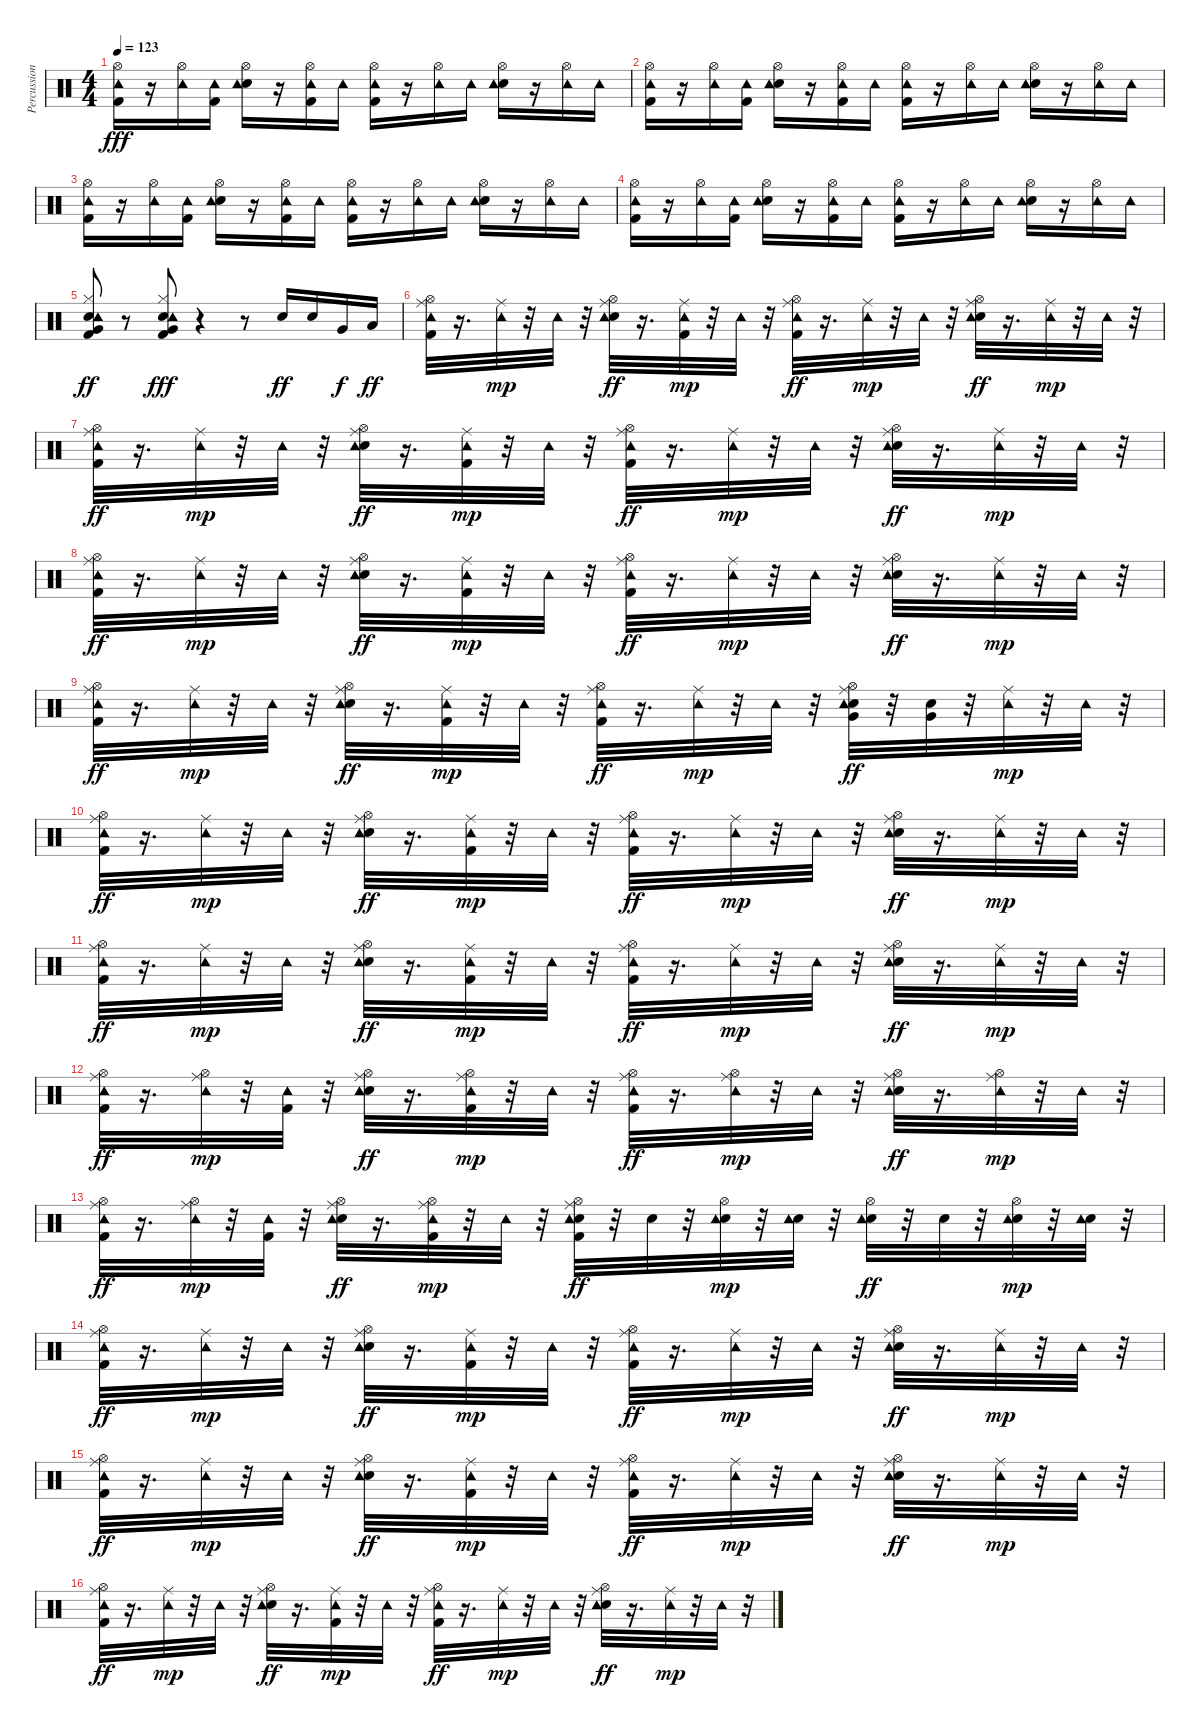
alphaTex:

\track ("Percussion: Liberty D'Vitto" "Percussion") {instrument percussion}
\staff {score}
\articulation defaults
\ts (4 4)
\tempo 123
\clef neutral
\ks c
("Hi-Hat (open)" "Tambourine (hit)" "Kick (hit) 2").16{dy fff} r.16 ("Hi-Hat (open)" "Tambourine (hit)").16 ("Tambourine (hit)" "Kick (hit) 2").16 ("Hi-Hat (open)" "Snare (hit) 2" "Tambourine (hit)").16 r.16 ("Hi-Hat (open)" "Tambourine (hit)" "Kick (hit) 2").16 "Tambourine (hit)".16 ("Hi-Hat (open)" "Tambourine (hit)" "Kick (hit) 2").16 r.16 ("Hi-Hat (open)" "Tambourine (hit)").16 "Tambourine (hit)".16 ("Hi-Hat (open)" "Snare (hit) 2" "Tambourine (hit)").16 r.16 ("Hi-Hat (open)" "Tambourine (hit)").16 "Tambourine (hit)".16 |
("Hi-Hat (open)" "Tambourine (hit)" "Kick (hit) 2").16 r.16 ("Hi-Hat (open)" "Tambourine (hit)").16 ("Tambourine (hit)" "Kick (hit) 2").16 ("Hi-Hat (open)" "Snare (hit) 2" "Tambourine (hit)").16 r.16 ("Hi-Hat (open)" "Tambourine (hit)" "Kick (hit) 2").16 "Tambourine (hit)".16 ("Hi-Hat (open)" "Tambourine (hit)" "Kick (hit) 2").16 r.16 ("Hi-Hat (open)" "Tambourine (hit)").16 "Tambourine (hit)".16 ("Hi-Hat (open)" "Snare (hit) 2" "Tambourine (hit)").16 r.16 ("Hi-Hat (open)" "Tambourine (hit)").16 "Tambourine (hit)".16 |
("Hi-Hat (open)" "Tambourine (hit)" "Kick (hit) 2").16 r.16 ("Hi-Hat (open)" "Tambourine (hit)").16 ("Tambourine (hit)" "Kick (hit) 2").16 ("Hi-Hat (open)" "Snare (hit) 2" "Tambourine (hit)").16 r.16 ("Hi-Hat (open)" "Tambourine (hit)" "Kick (hit) 2").16 "Tambourine (hit)".16 ("Hi-Hat (open)" "Tambourine (hit)" "Kick (hit) 2").16 r.16 ("Hi-Hat (open)" "Tambourine (hit)").16 "Tambourine (hit)".16 ("Hi-Hat (open)" "Snare (hit) 2" "Tambourine (hit)").16 r.16 ("Hi-Hat (open)" "Tambourine (hit)").16 "Tambourine (hit)".16 |
("Hi-Hat (open)" "Tambourine (hit)" "Kick (hit) 2").16 r.16 ("Hi-Hat (open)" "Tambourine (hit)").16 ("Tambourine (hit)" "Kick (hit) 2").16 ("Hi-Hat (open)" "Snare (hit) 2" "Tambourine (hit)").16 r.16 ("Hi-Hat (open)" "Tambourine (hit)" "Kick (hit) 2").16 "Tambourine (hit)".16 ("Hi-Hat (open)" "Tambourine (hit)" "Kick (hit) 2").16 r.16 ("Hi-Hat (open)" "Tambourine (hit)").16 "Tambourine (hit)".16 ("Hi-Hat (open)" "Snare (hit) 2" "Tambourine (hit)").16 r.16 ("Hi-Hat (open)" "Tambourine (hit)").16 "Tambourine (hit)".16 |
("Kick (hit) 2" "Snare (hit) 2" "Hi-Hat (closed)" "Very Low Tom (hit)" "Tambourine (hit)").8{dy ff} r.8 ("Kick (hit) 2" "Snare (hit) 2" "Hi-Hat (closed)" "Very Low Tom (hit)" "Tambourine (hit)").8{dy fff} r.4 r.8 "Snare (hit) 2".16{dy ff} "Snare (hit) 2".16 "Very Low Tom (hit)".16{dy f} "Low Floor Tom (hit)".16{dy ff} |
("Kick (hit) 2" "Hi-Hat (open)" "Ride (middle)" "Tambourine (hit)").32 r.16{d} ("Ride (middle)" "Tambourine (hit)").32{dy mp} r.32 "Tambourine (hit)".32 r.32 ("Snare (hit) 2" "Hi-Hat (open)" "Ride (middle)" "Tambourine (hit)").32{dy ff} r.16{d} ("Kick (hit) 2" "Ride (middle)" "Tambourine (hit)").32{dy mp} r.32 "Tambourine (hit)".32 r.32 ("Kick (hit) 2" "Hi-Hat (open)" "Ride (middle)" "Tambourine (hit)").32{dy ff} r.16{d} ("Ride (middle)" "Tambourine (hit)").32{dy mp} r.32 "Tambourine (hit)".32 r.32 ("Snare (hit) 2" "Hi-Hat (open)" "Ride (middle)" "Tambourine (hit)").32{dy ff} r.16{d} ("Ride (middle)" "Tambourine (hit)").32{dy mp} r.32 "Tambourine (hit)".32 r.32 |
("Kick (hit) 2" "Hi-Hat (open)" "Ride (middle)" "Tambourine (hit)").32{dy ff} r.16{d} ("Ride (middle)" "Tambourine (hit)").32{dy mp} r.32 "Tambourine (hit)".32 r.32 ("Snare (hit) 2" "Hi-Hat (open)" "Ride (middle)" "Tambourine (hit)").32{dy ff} r.16{d} ("Kick (hit) 2" "Ride (middle)" "Tambourine (hit)").32{dy mp} r.32 "Tambourine (hit)".32 r.32 ("Kick (hit) 2" "Hi-Hat (open)" "Ride (middle)" "Tambourine (hit)").32{dy ff} r.16{d} ("Ride (middle)" "Tambourine (hit)").32{dy mp} r.32 "Tambourine (hit)".32 r.32 ("Snare (hit) 2" "Hi-Hat (open)" "Ride (middle)" "Tambourine (hit)").32{dy ff} r.16{d} ("Ride (middle)" "Tambourine (hit)").32{dy mp} r.32 "Tambourine (hit)".32 r.32 |
("Kick (hit) 2" "Hi-Hat (open)" "Ride (middle)" "Tambourine (hit)").32{dy ff} r.16{d} ("Ride (middle)" "Tambourine (hit)").32{dy mp} r.32 "Tambourine (hit)".32 r.32 ("Snare (hit) 2" "Hi-Hat (open)" "Ride (middle)" "Tambourine (hit)").32{dy ff} r.16{d} ("Kick (hit) 2" "Ride (middle)" "Tambourine (hit)").32{dy mp} r.32 "Tambourine (hit)".32 r.32 ("Kick (hit) 2" "Hi-Hat (open)" "Ride (middle)" "Tambourine (hit)").32{dy ff} r.16{d} ("Ride (middle)" "Tambourine (hit)").32{dy mp} r.32 "Tambourine (hit)".32 r.32 ("Snare (hit) 2" "Hi-Hat (open)" "Ride (middle)" "Tambourine (hit)").32{dy ff} r.16{d} ("Ride (middle)" "Tambourine (hit)").32{dy mp} r.32 "Tambourine (hit)".32 r.32 |
("Kick (hit) 2" "Hi-Hat (open)" "Ride (middle)" "Tambourine (hit)").32{dy ff} r.16{d} ("Ride (middle)" "Tambourine (hit)").32{dy mp} r.32 "Tambourine (hit)".32 r.32 ("Snare (hit) 2" "Hi-Hat (open)" "Ride (middle)" "Tambourine (hit)").32{dy ff} r.16{d} ("Kick (hit) 2" "Ride (middle)" "Tambourine (hit)").32{dy mp} r.32 "Tambourine (hit)".32 r.32 ("Kick (hit) 2" "Hi-Hat (open)" "Ride (middle)" "Tambourine (hit)").32{dy ff} r.16{d} ("Ride (middle)" "Tambourine (hit)").32{dy mp} r.32 "Tambourine (hit)".32 r.32 ("Snare (hit) 2" "Hi-Hat (open)" "Ride (middle)" "Very Low Tom (hit)" "Tambourine (hit)").32{dy ff} r.32 ("Snare (hit) 2" "Very Low Tom (hit)").32 r.32 ("Ride (middle)" "Tambourine (hit)").32{dy mp} r.32 "Tambourine (hit)".32 r.32 |
("Kick (hit) 2" "Hi-Hat (open)" "Ride (middle)" "Tambourine (hit)").32{dy ff} r.16{d} ("Ride (middle)" "Tambourine (hit)").32{dy mp} r.32 "Tambourine (hit)".32 r.32 ("Snare (hit) 2" "Hi-Hat (open)" "Ride (middle)" "Tambourine (hit)").32{dy ff} r.16{d} ("Kick (hit) 2" "Ride (middle)" "Tambourine (hit)").32{dy mp} r.32 "Tambourine (hit)".32 r.32 ("Kick (hit) 2" "Hi-Hat (open)" "Ride (middle)" "Tambourine (hit)").32{dy ff} r.16{d} ("Ride (middle)" "Tambourine (hit)").32{dy mp} r.32 "Tambourine (hit)".32 r.32 ("Snare (hit) 2" "Hi-Hat (open)" "Ride (middle)" "Tambourine (hit)").32{dy ff} r.16{d} ("Ride (middle)" "Tambourine (hit)").32{dy mp} r.32 "Tambourine (hit)".32 r.32 |
("Kick (hit) 2" "Hi-Hat (open)" "Ride (middle)" "Tambourine (hit)").32{dy ff} r.16{d} ("Ride (middle)" "Tambourine (hit)").32{dy mp} r.32 "Tambourine (hit)".32 r.32 ("Snare (hit) 2" "Hi-Hat (open)" "Ride (middle)" "Tambourine (hit)").32{dy ff} r.16{d} ("Kick (hit) 2" "Ride (middle)" "Tambourine (hit)").32{dy mp} r.32 "Tambourine (hit)".32 r.32 ("Kick (hit) 2" "Hi-Hat (open)" "Ride (middle)" "Tambourine (hit)").32{dy ff} r.16{d} ("Ride (middle)" "Tambourine (hit)").32{dy mp} r.32 "Tambourine (hit)".32 r.32 ("Snare (hit) 2" "Hi-Hat (open)" "Ride (middle)" "Tambourine (hit)").32{dy ff} r.16{d} ("Ride (middle)" "Tambourine (hit)").32{dy mp} r.32 "Tambourine (hit)".32 r.32 |
("Kick (hit) 2" "Hi-Hat (open)" "Ride (middle)" "Tambourine (hit)").32{dy ff} r.16{d} ("Hi-Hat (open)" "Ride (middle)" "Tambourine (hit)").32{dy mp} r.32 ("Kick (hit) 2" "Tambourine (hit)").32 r.32 ("Snare (hit) 2" "Hi-Hat (open)" "Ride (middle)" "Tambourine (hit)").32{dy ff} r.16{d} ("Kick (hit) 2" "Hi-Hat (open)" "Ride (middle)" "Tambourine (hit)").32{dy mp} r.32 "Tambourine (hit)".32 r.32 ("Kick (hit) 2" "Hi-Hat (open)" "Ride (middle)" "Tambourine (hit)").32{dy ff} r.16{d} ("Hi-Hat (open)" "Ride (middle)" "Tambourine (hit)").32{dy mp} r.32 "Tambourine (hit)".32 r.32 ("Snare (hit) 2" "Hi-Hat (open)" "Ride (middle)" "Tambourine (hit)").32{dy ff} r.16{d} ("Hi-Hat (open)" "Ride (middle)" "Tambourine (hit)").32{dy mp} r.32 "Tambourine (hit)".32 r.32 |
("Kick (hit) 2" "Hi-Hat (open)" "Ride (middle)" "Tambourine (hit)").32{dy ff} r.16{d} ("Hi-Hat (open)" "Ride (middle)" "Tambourine (hit)").32{dy mp} r.32 ("Kick (hit) 2" "Tambourine (hit)").32 r.32 ("Snare (hit) 2" "Hi-Hat (open)" "Ride (middle)" "Tambourine (hit)").32{dy ff} r.16{d} ("Kick (hit) 2" "Hi-Hat (open)" "Ride (middle)" "Tambourine (hit)").32{dy mp} r.32 "Tambourine (hit)".32 r.32 ("Kick (hit) 2" "Snare (hit) 2" "Hi-Hat (open)" "Ride (middle)" "Tambourine (hit)").32{dy ff} r.32 "Snare (hit) 2".32 r.32 ("Snare (hit) 2" "Hi-Hat (open)" "Tambourine (hit)").32{dy mp} r.32 ("Snare (hit) 2" "Tambourine (hit)").32 r.32 ("Snare (hit) 2" "Hi-Hat (open)" "Tambourine (hit)").32{dy ff} r.32 "Snare (hit) 2".32 r.32 ("Snare (hit) 2" "Hi-Hat (open)" "Tambourine (hit)").32{dy mp} r.32 ("Snare (hit) 2" "Tambourine (hit)").32 r.32 |
("Kick (hit) 2" "Hi-Hat (open)" "Ride (middle)" "Tambourine (hit)").32{dy ff} r.16{d} ("Ride (middle)" "Tambourine (hit)").32{dy mp} r.32 "Tambourine (hit)".32 r.32 ("Snare (hit) 2" "Hi-Hat (open)" "Ride (middle)" "Tambourine (hit)").32{dy ff} r.16{d} ("Kick (hit) 2" "Ride (middle)" "Tambourine (hit)").32{dy mp} r.32 "Tambourine (hit)".32 r.32 ("Kick (hit) 2" "Hi-Hat (open)" "Ride (middle)" "Tambourine (hit)").32{dy ff} r.16{d} ("Ride (middle)" "Tambourine (hit)").32{dy mp} r.32 "Tambourine (hit)".32 r.32 ("Snare (hit) 2" "Hi-Hat (open)" "Ride (middle)" "Tambourine (hit)").32{dy ff} r.16{d} ("Ride (middle)" "Tambourine (hit)").32{dy mp} r.32 "Tambourine (hit)".32 r.32 |
("Kick (hit) 2" "Hi-Hat (open)" "Ride (middle)" "Tambourine (hit)").32{dy ff} r.16{d} ("Ride (middle)" "Tambourine (hit)").32{dy mp} r.32 "Tambourine (hit)".32 r.32 ("Snare (hit) 2" "Hi-Hat (open)" "Ride (middle)" "Tambourine (hit)").32{dy ff} r.16{d} ("Kick (hit) 2" "Ride (middle)" "Tambourine (hit)").32{dy mp} r.32 "Tambourine (hit)".32 r.32 ("Kick (hit) 2" "Hi-Hat (open)" "Ride (middle)" "Tambourine (hit)").32{dy ff} r.16{d} ("Ride (middle)" "Tambourine (hit)").32{dy mp} r.32 "Tambourine (hit)".32 r.32 ("Snare (hit) 2" "Hi-Hat (open)" "Ride (middle)" "Tambourine (hit)").32{dy ff} r.16{d} ("Ride (middle)" "Tambourine (hit)").32{dy mp} r.32 "Tambourine (hit)".32 r.32 |
("Kick (hit) 2" "Hi-Hat (open)" "Ride (middle)" "Tambourine (hit)").32{dy ff} r.16{d} ("Ride (middle)" "Tambourine (hit)").32{dy mp} r.32 "Tambourine (hit)".32 r.32 ("Snare (hit) 2" "Hi-Hat (open)" "Ride (middle)" "Tambourine (hit)").32{dy ff} r.16{d} ("Kick (hit) 2" "Ride (middle)" "Tambourine (hit)").32{dy mp} r.32 "Tambourine (hit)".32 r.32 ("Kick (hit) 2" "Hi-Hat (open)" "Ride (middle)" "Tambourine (hit)").32{dy ff} r.16{d} ("Ride (middle)" "Tambourine (hit)").32{dy mp} r.32 "Tambourine (hit)".32 r.32 ("Snare (hit) 2" "Hi-Hat (open)" "Ride (middle)" "Tambourine (hit)").32{dy ff} r.16{d} ("Ride (middle)" "Tambourine (hit)").32{dy mp} r.32 "Tambourine (hit)".32 r.32
